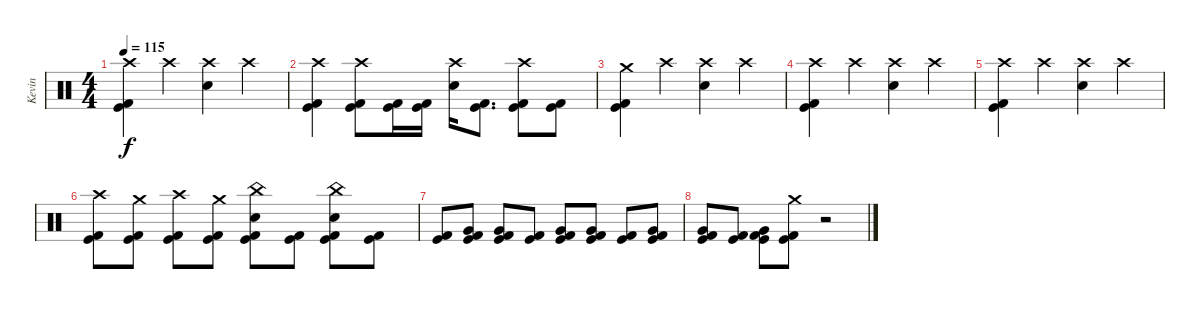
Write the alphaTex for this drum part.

\track ("Kevin" "Kevin") {instrument percussion}
\staff {score}
\articulation defaults
\ts (4 4)
\tempo 115
\clef neutral
\ks c
("Crash high (hit)" "Kick (hit)" "Kick (hit) 2").4{dy f} "Crash high (hit)".4 ("Crash high (hit)" "Electric Snare (hit)").4 "Crash high (hit)".4 |
("Crash high (hit)" "Kick (hit)" "Kick (hit) 2").4 ("Crash high (hit)" "Kick (hit)" "Kick (hit) 2").8 ("Kick (hit)" "Kick (hit) 2").16 ("Kick (hit)" "Kick (hit) 2").16 ("Crash high (hit)" "Electric Snare (hit)").16 ("Kick (hit) 2" "Kick (hit)").8{d} ("Crash high (hit)" "Kick (hit)" "Kick (hit) 2").8 ("Kick (hit)" "Kick (hit) 2").8 |
("Crash medium (hit)" "Kick (hit)" "Kick (hit) 2").4 "Crash high (hit)".4 ("Crash high (hit)" "Electric Snare (hit)").4 "Crash high (hit)".4 |
("Crash high (hit)" "Kick (hit)" "Kick (hit) 2").4 "Crash high (hit)".4 ("Crash high (hit)" "Electric Snare (hit)").4 "Crash high (hit)".4 |
("Crash high (hit)" "Kick (hit)" "Kick (hit) 2").4 "Crash high (hit)".4 ("Crash high (hit)" "Electric Snare (hit)").4 "Crash high (hit)".4 |
("Crash high (hit)" "Kick (hit)" "Kick (hit) 2").8 ("Crash medium (hit)" "Kick (hit)" "Kick (hit) 2").8 ("Crash high (hit)" "Kick (hit)" "Kick (hit) 2").8 ("Crash medium (hit)" "Kick (hit)" "Kick (hit) 2").8 ("China (hit)" "Electric Snare (hit)" "Kick (hit)" "Kick (hit) 2").8 ("Kick (hit)" "Kick (hit) 2").8 ("China (hit)" "Electric Snare (hit)" "Kick (hit)" "Kick (hit) 2").8 ("Kick (hit)" "Kick (hit) 2").8 |
("Kick (hit)" "Kick (hit) 2").8 ("Very Low Tom (hit)" "Kick (hit)" "Kick (hit) 2").8 ("Very Low Tom (hit)" "Kick (hit)" "Kick (hit) 2").8 ("Kick (hit)" "Kick (hit) 2").8 ("Very Low Tom (hit)" "Kick (hit)" "Kick (hit) 2").8 ("Very Low Tom (hit)" "Kick (hit)" "Kick (hit) 2").8 ("Kick (hit)" "Kick (hit) 2").8 ("Very Low Tom (hit)" "Kick (hit)" "Kick (hit) 2").8 |
("Very Low Tom (hit)" "Kick (hit)" "Kick (hit) 2").8 ("Kick (hit)" "Kick (hit) 2").8 ("Very Low Tom (hit)" "Kick (hit)" "Kick (hit) 2").8 ("Crash medium (hit)" "Kick (hit)" "Kick (hit) 2").8 r.2
